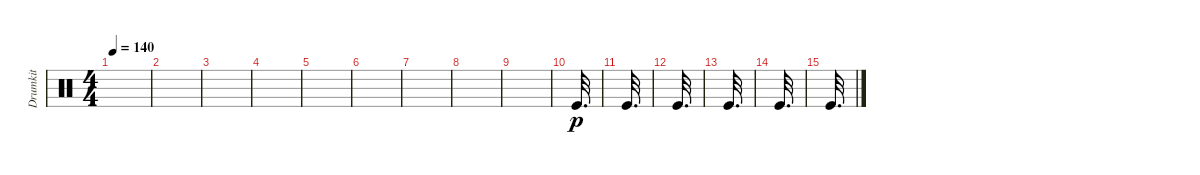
\track ("Drumkit" "Drumkit") {instrument percussion}
\staff {score}
\articulation defaults
\ts (4 4)
\tempo 140
\clef neutral
\ks c
|
|
|
|
|
|
|
|
|
"Kick (hit)".32{d dy p} |
"Kick (hit)".32{d} |
"Kick (hit)".32{d} |
"Kick (hit)".32{d} |
"Kick (hit)".32{d} |
"Kick (hit)".32{d}
